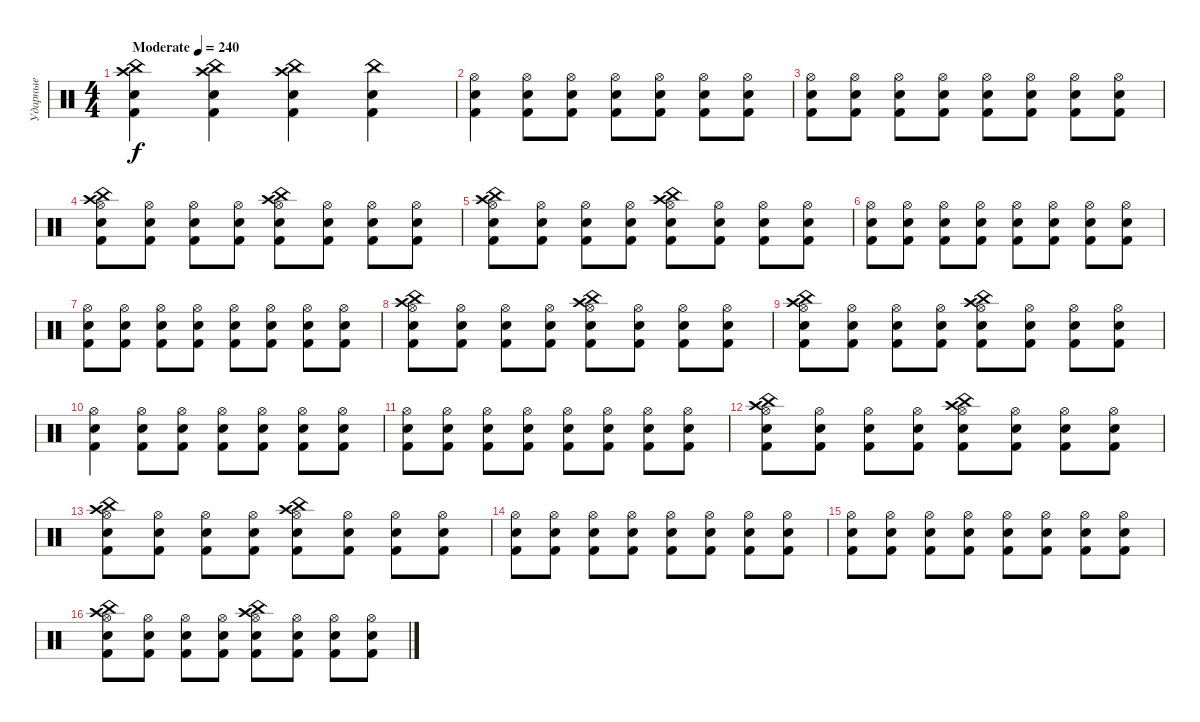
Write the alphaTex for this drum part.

\track ("Ударные" "Ударные") {instrument percussion}
\staff {score}
\articulation defaults
\ts (4 4)
\tempo (240 "Moderate")
\clef neutral
\ks c
("Electric Snare (hit)" "Kick (hit) 2" "Crash high (hit)" "China (hit)").4{dy f} ("China (hit)" "Crash high (hit)" "Kick (hit) 2" "Electric Snare (hit)").4 ("Electric Snare (hit)" "Kick (hit) 2" "Crash high (hit)" "China (hit)").4 ("China (hit)" "Kick (hit) 2" "Electric Snare (hit)").4 |
("Electric Snare (hit)" "Kick (hit) 2" "Hi-Hat (open)").4 ("Hi-Hat (open)" "Kick (hit) 2" "Electric Snare (hit)").8 ("Electric Snare (hit)" "Kick (hit) 2" "Hi-Hat (open)").8 ("Hi-Hat (open)" "Kick (hit) 2" "Electric Snare (hit)").8 ("Electric Snare (hit)" "Kick (hit) 2" "Hi-Hat (open)").8 ("Hi-Hat (open)" "Kick (hit) 2" "Electric Snare (hit)").8 ("Electric Snare (hit)" "Kick (hit) 2" "Hi-Hat (open)").8 |
("Electric Snare (hit)" "Kick (hit) 2" "Hi-Hat (open)").8 ("Hi-Hat (open)" "Kick (hit) 2" "Electric Snare (hit)").8 ("Electric Snare (hit)" "Kick (hit) 2" "Hi-Hat (open)").8 ("Hi-Hat (open)" "Kick (hit) 2" "Electric Snare (hit)").8 ("Electric Snare (hit)" "Kick (hit) 2" "Hi-Hat (open)").8 ("Hi-Hat (open)" "Kick (hit) 2" "Electric Snare (hit)").8 ("Electric Snare (hit)" "Kick (hit) 2" "Hi-Hat (open)").8 ("Hi-Hat (open)" "Kick (hit) 2" "Electric Snare (hit)").8 |
("Electric Snare (hit)" "Kick (hit) 2" "Hi-Hat (open)" "China (hit)" "Crash high (hit)").8 ("Hi-Hat (open)" "Kick (hit) 2" "Electric Snare (hit)").8 ("Electric Snare (hit)" "Kick (hit) 2" "Hi-Hat (open)").8 ("Hi-Hat (open)" "Kick (hit) 2" "Electric Snare (hit)").8 ("Electric Snare (hit)" "Kick (hit) 2" "Hi-Hat (open)" "Crash high (hit)" "China (hit)").8 ("Hi-Hat (open)" "Kick (hit) 2" "Electric Snare (hit)").8 ("Electric Snare (hit)" "Kick (hit) 2" "Hi-Hat (open)").8 ("Hi-Hat (open)" "Kick (hit) 2" "Electric Snare (hit)").8 |
("Electric Snare (hit)" "Kick (hit) 2" "Hi-Hat (open)" "Crash high (hit)" "China (hit)").8 ("Hi-Hat (open)" "Kick (hit) 2" "Electric Snare (hit)").8 ("Electric Snare (hit)" "Kick (hit) 2" "Hi-Hat (open)").8 ("Hi-Hat (open)" "Kick (hit) 2" "Electric Snare (hit)").8 ("Electric Snare (hit)" "Kick (hit) 2" "Hi-Hat (open)" "China (hit)" "Crash high (hit)").8 ("Hi-Hat (open)" "Kick (hit) 2" "Electric Snare (hit)").8 ("Electric Snare (hit)" "Kick (hit) 2" "Hi-Hat (open)").8 ("Hi-Hat (open)" "Kick (hit) 2" "Electric Snare (hit)").8 |
("Electric Snare (hit)" "Kick (hit) 2" "Hi-Hat (open)").8 ("Hi-Hat (open)" "Kick (hit) 2" "Electric Snare (hit)").8 ("Electric Snare (hit)" "Kick (hit) 2" "Hi-Hat (open)").8 ("Hi-Hat (open)" "Kick (hit) 2" "Electric Snare (hit)").8 ("Electric Snare (hit)" "Kick (hit) 2" "Hi-Hat (open)").8 ("Hi-Hat (open)" "Kick (hit) 2" "Electric Snare (hit)").8 ("Electric Snare (hit)" "Kick (hit) 2" "Hi-Hat (open)").8 ("Hi-Hat (open)" "Kick (hit) 2" "Electric Snare (hit)").8 |
("Electric Snare (hit)" "Kick (hit) 2" "Hi-Hat (open)").8 ("Hi-Hat (open)" "Kick (hit) 2" "Electric Snare (hit)").8 ("Electric Snare (hit)" "Kick (hit) 2" "Hi-Hat (open)").8 ("Hi-Hat (open)" "Kick (hit) 2" "Electric Snare (hit)").8 ("Electric Snare (hit)" "Kick (hit) 2" "Hi-Hat (open)").8 ("Hi-Hat (open)" "Kick (hit) 2" "Electric Snare (hit)").8 ("Electric Snare (hit)" "Kick (hit) 2" "Hi-Hat (open)").8 ("Hi-Hat (open)" "Kick (hit) 2" "Electric Snare (hit)").8 |
("Electric Snare (hit)" "Kick (hit) 2" "Hi-Hat (open)" "Crash high (hit)" "China (hit)").8 ("Hi-Hat (open)" "Kick (hit) 2" "Electric Snare (hit)").8 ("Electric Snare (hit)" "Kick (hit) 2" "Hi-Hat (open)").8 ("Hi-Hat (open)" "Kick (hit) 2" "Electric Snare (hit)").8 ("Electric Snare (hit)" "Kick (hit) 2" "Hi-Hat (open)" "China (hit)" "Crash high (hit)").8 ("Hi-Hat (open)" "Kick (hit) 2" "Electric Snare (hit)").8 ("Electric Snare (hit)" "Kick (hit) 2" "Hi-Hat (open)").8 ("Hi-Hat (open)" "Kick (hit) 2" "Electric Snare (hit)").8 |
("Electric Snare (hit)" "Kick (hit) 2" "Hi-Hat (open)" "Crash high (hit)" "China (hit)").8 ("Hi-Hat (open)" "Kick (hit) 2" "Electric Snare (hit)").8 ("Electric Snare (hit)" "Kick (hit) 2" "Hi-Hat (open)").8 ("Hi-Hat (open)" "Kick (hit) 2" "Electric Snare (hit)").8 ("Electric Snare (hit)" "Kick (hit) 2" "Hi-Hat (open)" "China (hit)" "Crash high (hit)").8 ("Hi-Hat (open)" "Kick (hit) 2" "Electric Snare (hit)").8 ("Electric Snare (hit)" "Kick (hit) 2" "Hi-Hat (open)").8 ("Hi-Hat (open)" "Kick (hit) 2" "Electric Snare (hit)").8 |
("Electric Snare (hit)" "Kick (hit) 2" "Hi-Hat (open)").4 ("Hi-Hat (open)" "Kick (hit) 2" "Electric Snare (hit)").8 ("Electric Snare (hit)" "Kick (hit) 2" "Hi-Hat (open)").8 ("Hi-Hat (open)" "Kick (hit) 2" "Electric Snare (hit)").8 ("Electric Snare (hit)" "Kick (hit) 2" "Hi-Hat (open)").8 ("Hi-Hat (open)" "Kick (hit) 2" "Electric Snare (hit)").8 ("Electric Snare (hit)" "Kick (hit) 2" "Hi-Hat (open)").8 |
("Electric Snare (hit)" "Kick (hit) 2" "Hi-Hat (open)").8 ("Hi-Hat (open)" "Kick (hit) 2" "Electric Snare (hit)").8 ("Electric Snare (hit)" "Kick (hit) 2" "Hi-Hat (open)").8 ("Hi-Hat (open)" "Kick (hit) 2" "Electric Snare (hit)").8 ("Electric Snare (hit)" "Kick (hit) 2" "Hi-Hat (open)").8 ("Hi-Hat (open)" "Kick (hit) 2" "Electric Snare (hit)").8 ("Electric Snare (hit)" "Kick (hit) 2" "Hi-Hat (open)").8 ("Hi-Hat (open)" "Kick (hit) 2" "Electric Snare (hit)").8 |
("Electric Snare (hit)" "Kick (hit) 2" "Hi-Hat (open)" "China (hit)" "Crash high (hit)").8 ("Hi-Hat (open)" "Kick (hit) 2" "Electric Snare (hit)").8 ("Electric Snare (hit)" "Kick (hit) 2" "Hi-Hat (open)").8 ("Hi-Hat (open)" "Kick (hit) 2" "Electric Snare (hit)").8 ("Electric Snare (hit)" "Kick (hit) 2" "Hi-Hat (open)" "Crash high (hit)" "China (hit)").8 ("Hi-Hat (open)" "Kick (hit) 2" "Electric Snare (hit)").8 ("Electric Snare (hit)" "Kick (hit) 2" "Hi-Hat (open)").8 ("Hi-Hat (open)" "Kick (hit) 2" "Electric Snare (hit)").8 |
("Electric Snare (hit)" "Kick (hit) 2" "Hi-Hat (open)" "Crash high (hit)" "China (hit)").8 ("Hi-Hat (open)" "Kick (hit) 2" "Electric Snare (hit)").8 ("Electric Snare (hit)" "Kick (hit) 2" "Hi-Hat (open)").8 ("Hi-Hat (open)" "Kick (hit) 2" "Electric Snare (hit)").8 ("Electric Snare (hit)" "Kick (hit) 2" "Hi-Hat (open)" "China (hit)" "Crash high (hit)").8 ("Hi-Hat (open)" "Kick (hit) 2" "Electric Snare (hit)").8 ("Electric Snare (hit)" "Kick (hit) 2" "Hi-Hat (open)").8 ("Hi-Hat (open)" "Kick (hit) 2" "Electric Snare (hit)").8 |
("Electric Snare (hit)" "Kick (hit) 2" "Hi-Hat (open)").8 ("Hi-Hat (open)" "Kick (hit) 2" "Electric Snare (hit)").8 ("Electric Snare (hit)" "Kick (hit) 2" "Hi-Hat (open)").8 ("Hi-Hat (open)" "Kick (hit) 2" "Electric Snare (hit)").8 ("Electric Snare (hit)" "Kick (hit) 2" "Hi-Hat (open)").8 ("Hi-Hat (open)" "Kick (hit) 2" "Electric Snare (hit)").8 ("Electric Snare (hit)" "Kick (hit) 2" "Hi-Hat (open)").8 ("Hi-Hat (open)" "Kick (hit) 2" "Electric Snare (hit)").8 |
("Electric Snare (hit)" "Kick (hit) 2" "Hi-Hat (open)").8 ("Hi-Hat (open)" "Kick (hit) 2" "Electric Snare (hit)").8 ("Electric Snare (hit)" "Kick (hit) 2" "Hi-Hat (open)").8 ("Hi-Hat (open)" "Kick (hit) 2" "Electric Snare (hit)").8 ("Electric Snare (hit)" "Kick (hit) 2" "Hi-Hat (open)").8 ("Hi-Hat (open)" "Kick (hit) 2" "Electric Snare (hit)").8 ("Electric Snare (hit)" "Kick (hit) 2" "Hi-Hat (open)").8 ("Hi-Hat (open)" "Kick (hit) 2" "Electric Snare (hit)").8 |
("Electric Snare (hit)" "Kick (hit) 2" "Hi-Hat (open)" "Crash high (hit)" "China (hit)").8 ("Hi-Hat (open)" "Kick (hit) 2" "Electric Snare (hit)").8 ("Electric Snare (hit)" "Kick (hit) 2" "Hi-Hat (open)").8 ("Hi-Hat (open)" "Kick (hit) 2" "Electric Snare (hit)").8 ("Electric Snare (hit)" "Kick (hit) 2" "Hi-Hat (open)" "China (hit)" "Crash high (hit)").8 ("Hi-Hat (open)" "Kick (hit) 2" "Electric Snare (hit)").8 ("Electric Snare (hit)" "Kick (hit) 2" "Hi-Hat (open)").8 ("Hi-Hat (open)" "Kick (hit) 2" "Electric Snare (hit)").8
